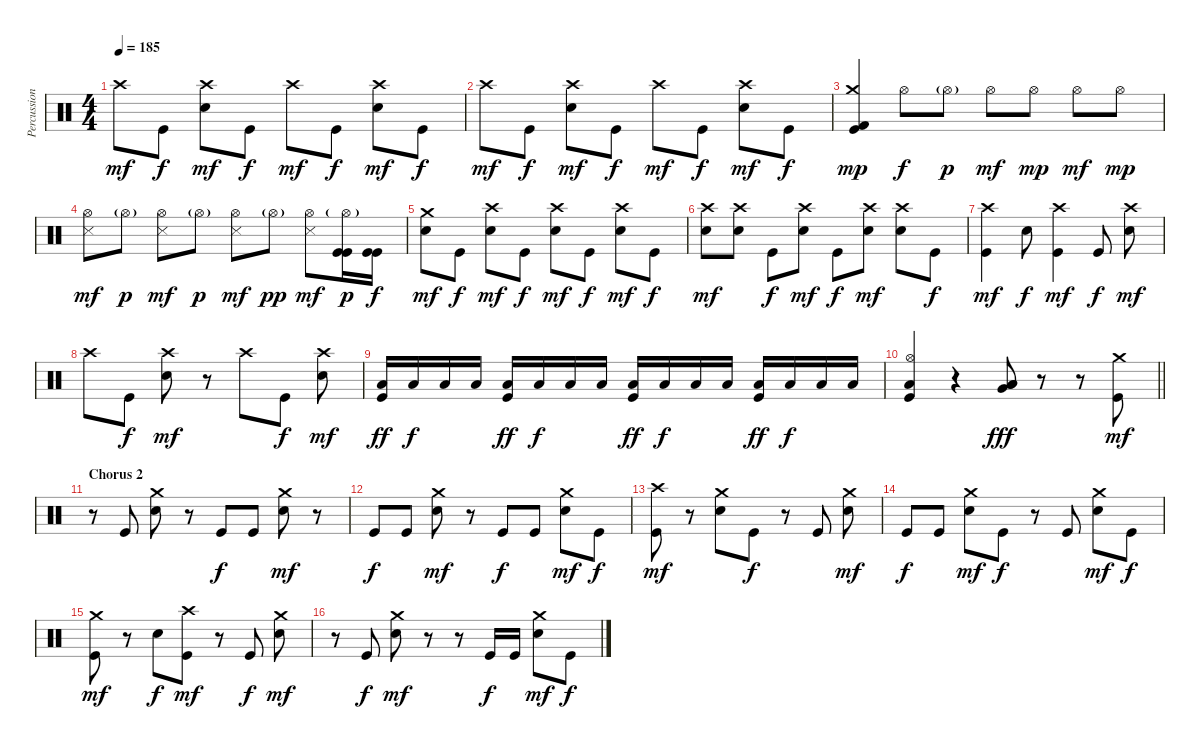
\track ("Percussion" "Percussion") {instrument percussion}
\staff {score}
\articulation defaults
\ts (4 4)
\tempo 185
\clef neutral
\ks c "Crash high (hit)".8{dy mf} "Kick (hit)".8{dy f}
("Crash high (hit)" "Electric Snare (hit)").8{dy mf} "Kick (hit)".8{dy f} "Crash high (hit)".8{dy mf} "Kick (hit)".8{dy f} ("Crash high (hit)" "Electric Snare (hit)").8{dy mf} "Kick (hit)".8{dy f} |
"Crash high (hit)".8{dy mf} "Kick (hit)".8{dy f} ("Crash high (hit)" "Electric Snare (hit)").8{dy mf} "Kick (hit)".8{dy f} "Crash high (hit)".8{dy mf} "Kick (hit)".8{dy f} ("Crash high (hit)" "Electric Snare (hit)").8{dy mf} "Kick (hit)".8{dy f} |
("Crash medium (hit)" "Kick (hit) 2" "Kick (hit)").4{dy mp} "Hi-Hat (open)".8{dy f} "Hi-Hat (open)"{g}.8{dy p} "Hi-Hat (open)".8{dy mf} "Hi-Hat (open)".8{dy mp} "Hi-Hat (open)".8{dy mf} "Hi-Hat (open)".8{dy mp} |
("Hi-Hat (open)" "Snare (side stick) 3").8{dy mf} "Hi-Hat (open)"{g}.8{dy p} ("Hi-Hat (open)" "Snare (side stick) 3").8{dy mf} "Hi-Hat (open)"{g}.8{dy p} ("Hi-Hat (open)" "Snare (side stick) 3").8{dy mf} "Hi-Hat (open)"{g}.8{dy pp} ("Hi-Hat (open)" "Snare (side stick) 3").8{dy mf} ("Hi-Hat (open)"{g} "Kick (hit)" "Kick (hit)").16{dy p} ("Kick (hit)" "Kick (hit)").16{dy f} |
("Crash medium (hit)" "Electric Snare (hit)").8{dy mf} "Kick (hit)".8{dy f} ("Crash high (hit)" "Electric Snare (hit)").8{dy mf} "Kick (hit)".8{dy f} ("Crash high (hit)" "Electric Snare (hit)").8{dy mf} "Kick (hit)".8{dy f} ("Crash high (hit)" "Electric Snare (hit)").8{dy mf} "Kick (hit)".8{dy f} |
("Crash high (hit)" "Electric Snare (hit)").8{dy mf} ("Crash high (hit)" "Electric Snare (hit)").8 "Kick (hit)".8{dy f} ("Crash high (hit)" "Electric Snare (hit)").8{dy mf} "Kick (hit)".8{dy f} ("Crash high (hit)" "Electric Snare (hit)").8{dy mf} ("Crash high (hit)" "Electric Snare (hit)").8 "Kick (hit)".8{dy f} |
("Crash high (hit)" "Kick (hit)").4{dy mf} "Electric Snare (hit)".8{dy f} ("Crash high (hit)" "Kick (hit)").4{dy mf} "Kick (hit)".8{dy f} ("Crash high (hit)" "Electric Snare (hit)").8{dy mf} |
"Crash high (hit)".8 "Kick (hit)".8{dy f} ("Crash high (hit)" "Electric Snare (hit)").8{dy mf} r.8 "Crash high (hit)".8 "Kick (hit)".8{dy f} ("Crash high (hit)" "Electric Snare (hit)").8{dy mf} |
("Low Floor Tom (hit)" "Kick (hit)").16{dy ff volume 9} "Low Floor Tom (hit)".16{dy f volume 14} "Low Floor Tom (hit)".16 "Low Floor Tom (hit)".16 ("Low Floor Tom (hit)" "Kick (hit)").16{dy ff} "Low Floor Tom (hit)".16{dy f} "Low Floor Tom (hit)".16 "Low Floor Tom (hit)".16 ("Low Floor Tom (hit)" "Kick (hit)").16{dy ff} "Low Floor Tom (hit)".16{dy f} "Low Floor Tom (hit)".16 "Low Floor Tom (hit)".16 ("Low Floor Tom (hit)" "Kick (hit)").16{dy ff} "Low Floor Tom (hit)".16{dy f} "Low Floor Tom (hit)".16 "Low Floor Tom (hit)".16 |
\barLineRight lightlight
("Hi-Hat (open)" "Low Floor Tom (hit)" "Kick (hit)").4{volume 13} r.4 ("Low Floor Tom (hit)" "Very Low Tom (hit)" "Low Floor Tom (hit)").8{dy fff} r.8 r.8 ("Crash medium (hit)" "Kick (hit)").8{dy mf} |
\section ("" "Chorus 2")
r.8{volume 13} "Kick (hit)".8 ("Crash medium (hit)" "Electric Snare (hit)").8 r.8 "Kick (hit)".8{dy f} "Kick (hit)".8 ("Crash medium (hit)" "Electric Snare (hit)").8{dy mf} r.8 |
"Kick (hit)".8{dy f} "Kick (hit)".8 ("Crash medium (hit)" "Electric Snare (hit)").8{dy mf} r.8 "Kick (hit)".8{dy f} "Kick (hit)".8 ("Crash medium (hit)" "Electric Snare (hit)").8{dy mf} "Kick (hit)".8{dy f} |
("Crash high (hit)" "Kick (hit)").8{dy mf} r.8 ("Crash medium (hit)" "Electric Snare (hit)").8 "Kick (hit)".8{dy f} r.8 "Kick (hit)".8 ("Crash medium (hit)" "Electric Snare (hit)").8{dy mf} |
"Kick (hit)".8{dy f} "Kick (hit)".8 ("Crash medium (hit)" "Electric Snare (hit)").8{dy mf} "Kick (hit)".8{dy f} r.8 "Kick (hit)".8 ("Crash medium (hit)" "Electric Snare (hit)").8{dy mf} "Kick (hit)".8{dy f} |
("Crash medium (hit)" "Kick (hit)").8{dy mf} r.8 "Electric Snare (hit)".8{dy f} ("Crash high (hit)" "Kick (hit)").8{dy mf} r.8 "Kick (hit)".8{dy f} ("Crash medium (hit)" "Electric Snare (hit)").8{dy mf} |
r.8 "Kick (hit)".8{dy f} ("Crash medium (hit)" "Electric Snare (hit)").8{dy mf} r.8 r.8 "Kick (hit)".16{dy f} "Kick (hit)".16 ("Crash medium (hit)" "Electric Snare (hit)").8{dy mf} "Kick (hit)".8{dy f}
